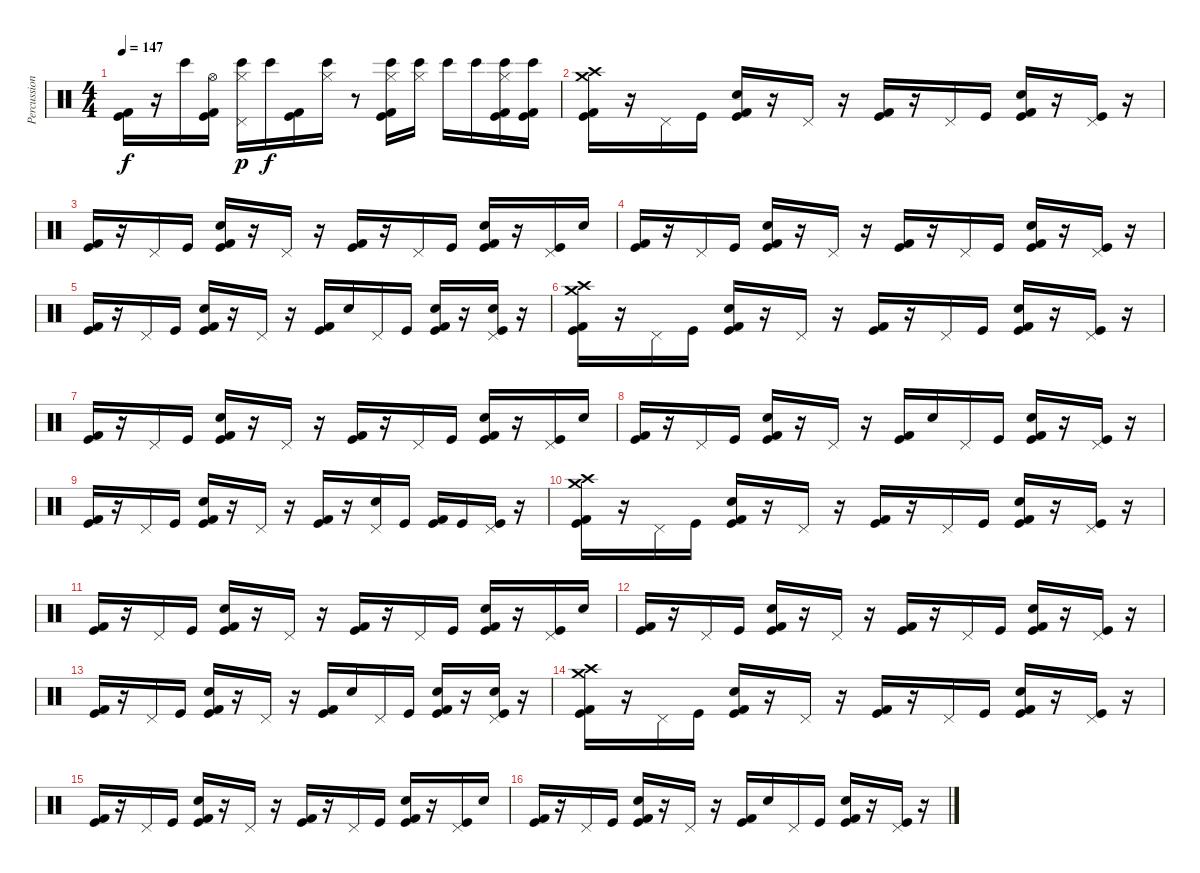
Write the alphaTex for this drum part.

\track ("Percussion (Room Kit)" "Percussion") {instrument percussion}
\staff {score}
\articulation defaults
\ts (4 4)
\tempo 147
\clef neutral
\ks c
("Kick (hit) 2" "Kick (hit)").16{dy f} r.16 "Bongo High (hit)".16 ("Kick (hit) 2" "Kick (hit)" "Hi-Hat (open)").16 ("Hi-Hat (closed)" "Bongo High (hit)" "Pedal Hi-Hat (hit)").16{dy p} "Bongo High (hit)".16{dy f} ("Kick (hit) 2" "Kick (hit)").16 ("Hi-Hat (closed)" "Bongo High (hit)").16 r.8 ("Kick (hit) 2" "Kick (hit)" "Hi-Hat (closed)" "Bongo High (hit)").16 ("Hi-Hat (closed)" "Bongo High (hit)").16 "Bongo High (hit)".16 "Bongo High (hit)".16 ("Kick (hit) 2" "Kick (hit)" "Hi-Hat (closed)" "Bongo High (hit)").16 ("Kick (hit) 2" "Kick (hit)" "Bongo High (hit)").16 |
("Kick (hit) 2" "Kick (hit)" "Crash medium (hit)" "Crash high (hit)").16 r.16 "Pedal Hi-Hat (hit)".16 "Kick (hit)".16 ("Hand Clap (hit)" "Kick (hit) 2" "Kick (hit)").16 r.16 "Pedal Hi-Hat (hit)".16 r.16 ("Kick (hit) 2" "Kick (hit)").16 r.16 "Pedal Hi-Hat (hit)".16 "Kick (hit)".16 ("Kick (hit) 2" "Kick (hit)" "Hand Clap (hit)").16 r.16 ("Pedal Hi-Hat (hit)" "Kick (hit)").16 r.16 |
("Kick (hit) 2" "Kick (hit)").16 r.16 "Pedal Hi-Hat (hit)".16 "Kick (hit)".16 ("Hand Clap (hit)" "Kick (hit) 2" "Kick (hit)").16 r.16 "Pedal Hi-Hat (hit)".16 r.16 ("Kick (hit) 2" "Kick (hit)").16 r.16 "Pedal Hi-Hat (hit)".16 "Kick (hit)".16 ("Kick (hit) 2" "Kick (hit)" "Hand Clap (hit)").16 r.16 ("Pedal Hi-Hat (hit)" "Kick (hit)").16 "Hand Clap (hit)".16 |
("Kick (hit) 2" "Kick (hit)").16 r.16 "Pedal Hi-Hat (hit)".16 "Kick (hit)".16 ("Hand Clap (hit)" "Kick (hit) 2" "Kick (hit)").16 r.16 "Pedal Hi-Hat (hit)".16 r.16 ("Kick (hit) 2" "Kick (hit)").16 r.16 "Pedal Hi-Hat (hit)".16 "Kick (hit)".16 ("Kick (hit) 2" "Kick (hit)" "Hand Clap (hit)").16 r.16 ("Pedal Hi-Hat (hit)" "Kick (hit)").16 r.16 |
("Kick (hit) 2" "Kick (hit)").16 r.16 "Pedal Hi-Hat (hit)".16 "Kick (hit)".16 ("Hand Clap (hit)" "Kick (hit) 2" "Kick (hit)").16 r.16 "Pedal Hi-Hat (hit)".16 r.16 ("Kick (hit) 2" "Kick (hit)").16 "Hand Clap (hit)".16 "Pedal Hi-Hat (hit)".16 "Kick (hit)".16 ("Kick (hit) 2" "Kick (hit)" "Hand Clap (hit)").16 r.16 ("Pedal Hi-Hat (hit)" "Kick (hit)" "Hand Clap (hit)").16 r.16 |
("Kick (hit) 2" "Kick (hit)" "Crash medium (hit)" "Crash high (hit)").16 r.16 "Pedal Hi-Hat (hit)".16 "Kick (hit)".16 ("Hand Clap (hit)" "Kick (hit) 2" "Kick (hit)").16 r.16 "Pedal Hi-Hat (hit)".16 r.16 ("Kick (hit) 2" "Kick (hit)").16 r.16 "Pedal Hi-Hat (hit)".16 "Kick (hit)".16 ("Kick (hit) 2" "Kick (hit)" "Hand Clap (hit)").16 r.16 ("Pedal Hi-Hat (hit)" "Kick (hit)").16 r.16 |
("Kick (hit) 2" "Kick (hit)").16 r.16 "Pedal Hi-Hat (hit)".16 "Kick (hit)".16 ("Hand Clap (hit)" "Kick (hit) 2" "Kick (hit)").16 r.16 "Pedal Hi-Hat (hit)".16 r.16 ("Kick (hit) 2" "Kick (hit)").16 r.16 "Pedal Hi-Hat (hit)".16 "Kick (hit)".16 ("Kick (hit) 2" "Kick (hit)" "Hand Clap (hit)").16 r.16 ("Pedal Hi-Hat (hit)" "Kick (hit)").16 "Hand Clap (hit)".16 |
("Kick (hit) 2" "Kick (hit)").16 r.16 "Pedal Hi-Hat (hit)".16 "Kick (hit)".16 ("Hand Clap (hit)" "Kick (hit) 2" "Kick (hit)").16 r.16 "Pedal Hi-Hat (hit)".16 r.16 ("Kick (hit) 2" "Kick (hit)").16 "Hand Clap (hit)".16 "Pedal Hi-Hat (hit)".16 "Kick (hit)".16 ("Kick (hit) 2" "Kick (hit)" "Hand Clap (hit)").16 r.16 ("Pedal Hi-Hat (hit)" "Kick (hit)").16 r.16 |
("Kick (hit) 2" "Kick (hit)").16 r.16 "Pedal Hi-Hat (hit)".16 "Kick (hit)".16 ("Hand Clap (hit)" "Kick (hit) 2" "Kick (hit)").16 r.16 "Pedal Hi-Hat (hit)".16 r.16 ("Kick (hit) 2" "Kick (hit)").16 r.16 ("Pedal Hi-Hat (hit)" "Hand Clap (hit)").16 "Kick (hit)".16 ("Kick (hit) 2" "Kick (hit)").16 "Kick (hit)".16 ("Pedal Hi-Hat (hit)" "Kick (hit)").16 r.16 |
("Kick (hit) 2" "Kick (hit)" "Crash medium (hit)" "Crash high (hit)").16 r.16 "Pedal Hi-Hat (hit)".16 "Kick (hit)".16 ("Hand Clap (hit)" "Kick (hit) 2" "Kick (hit)").16 r.16 "Pedal Hi-Hat (hit)".16 r.16 ("Kick (hit) 2" "Kick (hit)").16 r.16 "Pedal Hi-Hat (hit)".16 "Kick (hit)".16 ("Kick (hit) 2" "Kick (hit)" "Hand Clap (hit)").16 r.16 ("Pedal Hi-Hat (hit)" "Kick (hit)").16 r.16 |
("Kick (hit) 2" "Kick (hit)").16 r.16 "Pedal Hi-Hat (hit)".16 "Kick (hit)".16 ("Hand Clap (hit)" "Kick (hit) 2" "Kick (hit)").16 r.16 "Pedal Hi-Hat (hit)".16 r.16 ("Kick (hit) 2" "Kick (hit)").16 r.16 "Pedal Hi-Hat (hit)".16 "Kick (hit)".16 ("Kick (hit) 2" "Kick (hit)" "Hand Clap (hit)").16 r.16 ("Pedal Hi-Hat (hit)" "Kick (hit)").16 "Hand Clap (hit)".16 |
("Kick (hit) 2" "Kick (hit)").16 r.16 "Pedal Hi-Hat (hit)".16 "Kick (hit)".16 ("Hand Clap (hit)" "Kick (hit) 2" "Kick (hit)").16 r.16 "Pedal Hi-Hat (hit)".16 r.16 ("Kick (hit) 2" "Kick (hit)").16 r.16 "Pedal Hi-Hat (hit)".16 "Kick (hit)".16 ("Kick (hit) 2" "Kick (hit)" "Hand Clap (hit)").16 r.16 ("Pedal Hi-Hat (hit)" "Kick (hit)").16 r.16 |
("Kick (hit) 2" "Kick (hit)").16 r.16 "Pedal Hi-Hat (hit)".16 "Kick (hit)".16 ("Hand Clap (hit)" "Kick (hit) 2" "Kick (hit)").16 r.16 "Pedal Hi-Hat (hit)".16 r.16 ("Kick (hit) 2" "Kick (hit)").16 "Hand Clap (hit)".16 "Pedal Hi-Hat (hit)".16 "Kick (hit)".16 ("Kick (hit) 2" "Kick (hit)" "Hand Clap (hit)").16 r.16 ("Pedal Hi-Hat (hit)" "Kick (hit)" "Hand Clap (hit)").16 r.16 |
("Kick (hit) 2" "Kick (hit)" "Crash medium (hit)" "Crash high (hit)").16 r.16 "Pedal Hi-Hat (hit)".16 "Kick (hit)".16 ("Hand Clap (hit)" "Kick (hit) 2" "Kick (hit)").16 r.16 "Pedal Hi-Hat (hit)".16 r.16 ("Kick (hit) 2" "Kick (hit)").16 r.16 "Pedal Hi-Hat (hit)".16 "Kick (hit)".16 ("Kick (hit) 2" "Kick (hit)" "Hand Clap (hit)").16 r.16 ("Pedal Hi-Hat (hit)" "Kick (hit)").16 r.16 |
("Kick (hit) 2" "Kick (hit)").16 r.16 "Pedal Hi-Hat (hit)".16 "Kick (hit)".16 ("Hand Clap (hit)" "Kick (hit) 2" "Kick (hit)").16 r.16 "Pedal Hi-Hat (hit)".16 r.16 ("Kick (hit) 2" "Kick (hit)").16 r.16 "Pedal Hi-Hat (hit)".16 "Kick (hit)".16 ("Kick (hit) 2" "Kick (hit)" "Hand Clap (hit)").16 r.16 ("Pedal Hi-Hat (hit)" "Kick (hit)").16 "Hand Clap (hit)".16 |
("Kick (hit) 2" "Kick (hit)").16 r.16 "Pedal Hi-Hat (hit)".16 "Kick (hit)".16 ("Hand Clap (hit)" "Kick (hit) 2" "Kick (hit)").16 r.16 "Pedal Hi-Hat (hit)".16 r.16 ("Kick (hit) 2" "Kick (hit)").16 "Hand Clap (hit)".16 "Pedal Hi-Hat (hit)".16 "Kick (hit)".16 ("Kick (hit) 2" "Kick (hit)" "Hand Clap (hit)").16 r.16 ("Pedal Hi-Hat (hit)" "Kick (hit)").16 r.16
